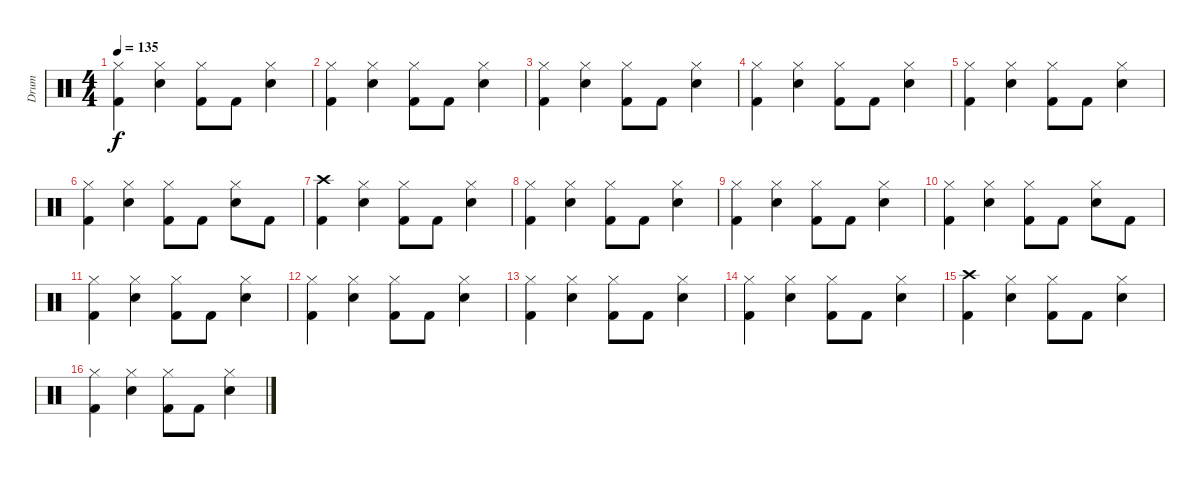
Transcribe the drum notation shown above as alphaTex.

\track ("Drum" "Drum") {instrument percussion}
\staff {score}
\articulation defaults
\ts (4 4)
\tempo 135
\clef neutral
\ks c
("Kick (hit) 2" "Hi-Hat (closed)").4{dy f} ("Snare (hit) 2" "Hi-Hat (closed)").4 ("Kick (hit) 2" "Hi-Hat (closed)").8 "Kick (hit) 2".8 ("Snare (hit) 2" "Hi-Hat (closed)").4 |
("Kick (hit) 2" "Hi-Hat (closed)").4 ("Snare (hit) 2" "Hi-Hat (closed)").4 ("Kick (hit) 2" "Hi-Hat (closed)").8 "Kick (hit) 2".8 ("Snare (hit) 2" "Hi-Hat (closed)").4 |
("Kick (hit) 2" "Hi-Hat (closed)").4 ("Snare (hit) 2" "Hi-Hat (closed)").4 ("Kick (hit) 2" "Hi-Hat (closed)").8 "Kick (hit) 2".8 ("Snare (hit) 2" "Hi-Hat (closed)").4 |
("Kick (hit) 2" "Hi-Hat (closed)").4 ("Snare (hit) 2" "Hi-Hat (closed)").4 ("Kick (hit) 2" "Hi-Hat (closed)").8 "Kick (hit) 2".8 ("Snare (hit) 2" "Hi-Hat (closed)").4 |
("Kick (hit) 2" "Hi-Hat (closed)").4 ("Snare (hit) 2" "Hi-Hat (closed)").4 ("Kick (hit) 2" "Hi-Hat (closed)").8 "Kick (hit) 2".8 ("Snare (hit) 2" "Hi-Hat (closed)").4 |
("Kick (hit) 2" "Hi-Hat (closed)").4 ("Snare (hit) 2" "Hi-Hat (closed)").4 ("Kick (hit) 2" "Hi-Hat (closed)").8 "Kick (hit) 2".8 ("Snare (hit) 2" "Hi-Hat (closed)").8 "Kick (hit) 2".8 |
("Kick (hit) 2" "Crash high (hit)").4 ("Snare (hit) 2" "Hi-Hat (closed)").4 ("Kick (hit) 2" "Hi-Hat (closed)").8 "Kick (hit) 2".8 ("Snare (hit) 2" "Hi-Hat (closed)").4 |
("Kick (hit) 2" "Hi-Hat (closed)").4 ("Snare (hit) 2" "Hi-Hat (closed)").4 ("Kick (hit) 2" "Hi-Hat (closed)").8 "Kick (hit) 2".8 ("Snare (hit) 2" "Hi-Hat (closed)").4 |
("Kick (hit) 2" "Hi-Hat (closed)").4 ("Snare (hit) 2" "Hi-Hat (closed)").4 ("Kick (hit) 2" "Hi-Hat (closed)").8 "Kick (hit) 2".8 ("Snare (hit) 2" "Hi-Hat (closed)").4 |
("Kick (hit) 2" "Hi-Hat (closed)").4 ("Snare (hit) 2" "Hi-Hat (closed)").4 ("Kick (hit) 2" "Hi-Hat (closed)").8 "Kick (hit) 2".8 ("Snare (hit) 2" "Hi-Hat (closed)").8 "Kick (hit) 2".8 |
("Kick (hit) 2" "Hi-Hat (closed)").4 ("Snare (hit) 2" "Hi-Hat (closed)").4 ("Kick (hit) 2" "Hi-Hat (closed)").8 "Kick (hit) 2".8 ("Snare (hit) 2" "Hi-Hat (closed)").4 |
("Kick (hit) 2" "Hi-Hat (closed)").4 ("Snare (hit) 2" "Hi-Hat (closed)").4 ("Kick (hit) 2" "Hi-Hat (closed)").8 "Kick (hit) 2".8 ("Snare (hit) 2" "Hi-Hat (closed)").4 |
("Kick (hit) 2" "Hi-Hat (closed)").4 ("Snare (hit) 2" "Hi-Hat (closed)").4 ("Kick (hit) 2" "Hi-Hat (closed)").8 "Kick (hit) 2".8 ("Snare (hit) 2" "Hi-Hat (closed)").4 |
("Kick (hit) 2" "Hi-Hat (closed)").4 ("Snare (hit) 2" "Hi-Hat (closed)").4 ("Kick (hit) 2" "Hi-Hat (closed)").8 "Kick (hit) 2".8 ("Snare (hit) 2" "Hi-Hat (closed)").4 |
("Kick (hit) 2" "Crash high (hit)").4 ("Snare (hit) 2" "Hi-Hat (closed)").4 ("Kick (hit) 2" "Hi-Hat (closed)").8 "Kick (hit) 2".8 ("Snare (hit) 2" "Hi-Hat (closed)").4 |
("Kick (hit) 2" "Hi-Hat (closed)").4 ("Snare (hit) 2" "Hi-Hat (closed)").4 ("Kick (hit) 2" "Hi-Hat (closed)").8 "Kick (hit) 2".8 ("Snare (hit) 2" "Hi-Hat (closed)").4
